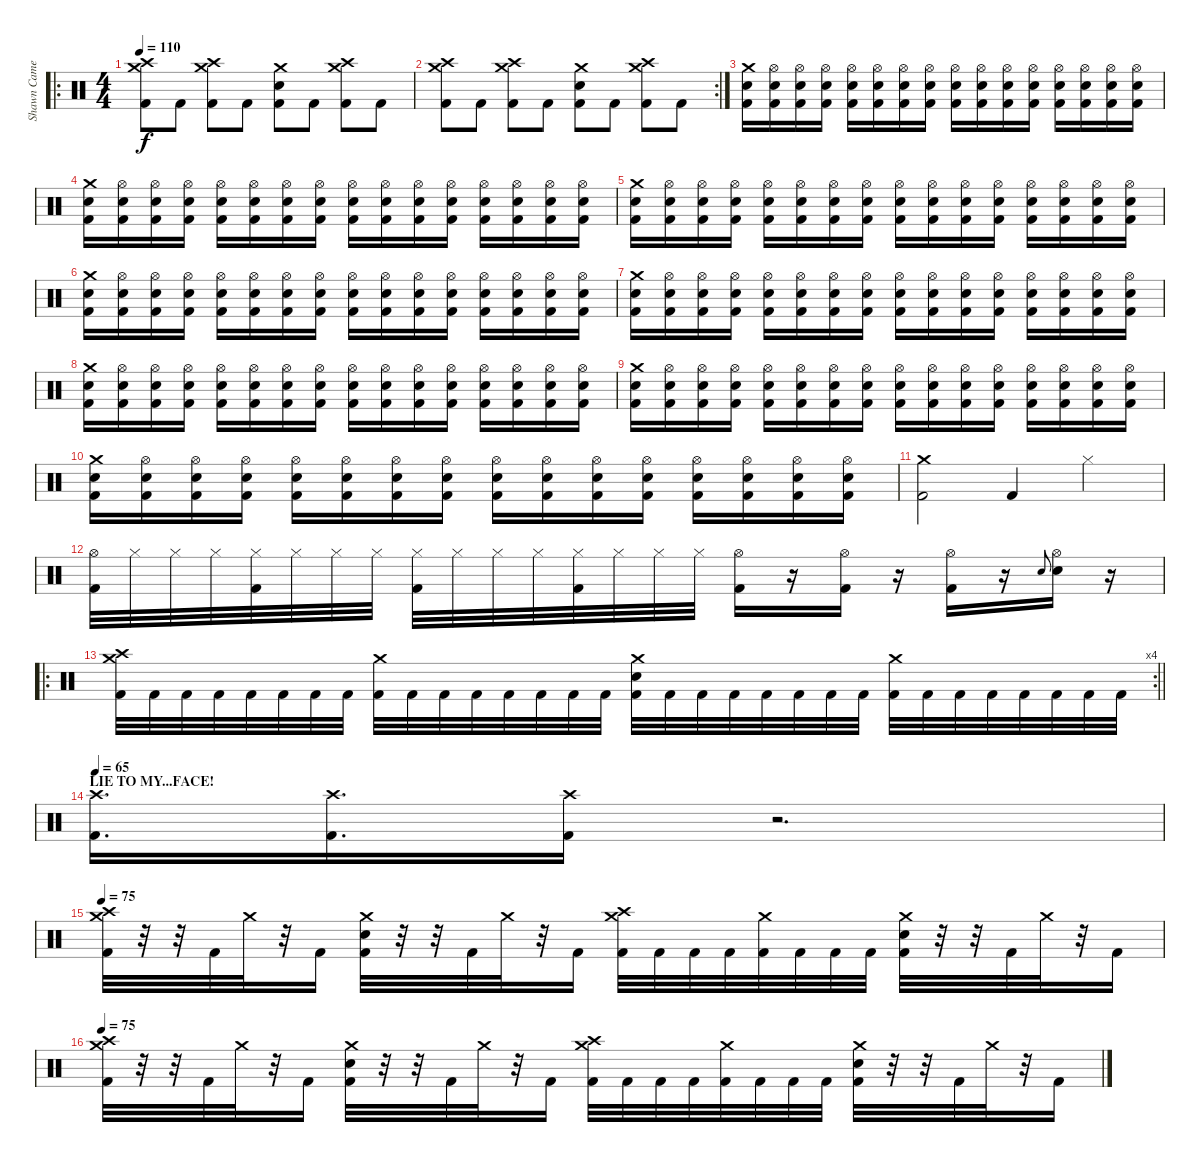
\track ("Shawn Cameron" "Shawn Came") {instrument percussion}
\staff {score}
\articulation defaults
\ro
\ts (4 4)
\tempo 110
\clef neutral
\ks c
("Crash medium (hit)" "Crash high (hit)" "Kick (hit) 2").8{dy f} "Kick (hit) 2".8 ("Crash medium (hit)" "Crash high (hit)" "Kick (hit) 2").8 "Kick (hit) 2".8 ("Crash medium (hit)" "Electric Snare (hit)" "Kick (hit) 2").8 "Kick (hit) 2".8 ("Crash medium (hit)" "Crash high (hit)" "Kick (hit) 2").8 "Kick (hit) 2".8 |
\rc 2
("Crash medium (hit)" "Crash high (hit)" "Kick (hit) 2").8 "Kick (hit) 2".8 ("Crash medium (hit)" "Crash high (hit)" "Kick (hit) 2").8 "Kick (hit) 2".8 ("Crash medium (hit)" "Electric Snare (hit)" "Kick (hit) 2").8 "Kick (hit) 2".8 ("Crash medium (hit)" "Crash high (hit)" "Kick (hit) 2").8 "Kick (hit) 2".8 |
("Crash medium (hit)" "Electric Snare (hit)" "Kick (hit) 2").16 ("Hi-Hat (open)" "Electric Snare (hit)" "Kick (hit) 2").16 ("Hi-Hat (open)" "Electric Snare (hit)" "Kick (hit) 2").16 ("Hi-Hat (open)" "Electric Snare (hit)" "Kick (hit) 2").16 ("Hi-Hat (open)" "Electric Snare (hit)" "Kick (hit) 2").16 ("Hi-Hat (open)" "Electric Snare (hit)" "Kick (hit) 2").16 ("Hi-Hat (open)" "Electric Snare (hit)" "Kick (hit) 2").16 ("Hi-Hat (open)" "Electric Snare (hit)" "Kick (hit) 2").16 ("Hi-Hat (open)" "Electric Snare (hit)" "Kick (hit) 2").16 ("Hi-Hat (open)" "Electric Snare (hit)" "Kick (hit) 2").16 ("Hi-Hat (open)" "Electric Snare (hit)" "Kick (hit) 2").16 ("Hi-Hat (open)" "Electric Snare (hit)" "Kick (hit) 2").16 ("Hi-Hat (open)" "Electric Snare (hit)" "Kick (hit) 2").16 ("Hi-Hat (open)" "Electric Snare (hit)" "Kick (hit) 2").16 ("Hi-Hat (open)" "Electric Snare (hit)" "Kick (hit) 2").16 ("Hi-Hat (open)" "Electric Snare (hit)" "Kick (hit) 2").16 |
("Crash medium (hit)" "Electric Snare (hit)" "Kick (hit) 2").16 ("Hi-Hat (open)" "Electric Snare (hit)" "Kick (hit) 2").16 ("Hi-Hat (open)" "Electric Snare (hit)" "Kick (hit) 2").16 ("Hi-Hat (open)" "Electric Snare (hit)" "Kick (hit) 2").16 ("Hi-Hat (open)" "Electric Snare (hit)" "Kick (hit) 2").16 ("Hi-Hat (open)" "Electric Snare (hit)" "Kick (hit) 2").16 ("Hi-Hat (open)" "Electric Snare (hit)" "Kick (hit) 2").16 ("Hi-Hat (open)" "Electric Snare (hit)" "Kick (hit) 2").16 ("Hi-Hat (open)" "Electric Snare (hit)" "Kick (hit) 2").16 ("Hi-Hat (open)" "Electric Snare (hit)" "Kick (hit) 2").16 ("Hi-Hat (open)" "Electric Snare (hit)" "Kick (hit) 2").16 ("Hi-Hat (open)" "Electric Snare (hit)" "Kick (hit) 2").16 ("Hi-Hat (open)" "Electric Snare (hit)" "Kick (hit) 2").16 ("Hi-Hat (open)" "Electric Snare (hit)" "Kick (hit) 2").16 ("Hi-Hat (open)" "Electric Snare (hit)" "Kick (hit) 2").16 ("Hi-Hat (open)" "Electric Snare (hit)" "Kick (hit) 2").16 |
("Crash medium (hit)" "Electric Snare (hit)" "Kick (hit) 2").16 ("Hi-Hat (open)" "Electric Snare (hit)" "Kick (hit) 2").16 ("Hi-Hat (open)" "Electric Snare (hit)" "Kick (hit) 2").16 ("Hi-Hat (open)" "Electric Snare (hit)" "Kick (hit) 2").16 ("Hi-Hat (open)" "Electric Snare (hit)" "Kick (hit) 2").16 ("Hi-Hat (open)" "Electric Snare (hit)" "Kick (hit) 2").16 ("Hi-Hat (open)" "Electric Snare (hit)" "Kick (hit) 2").16 ("Hi-Hat (open)" "Electric Snare (hit)" "Kick (hit) 2").16 ("Hi-Hat (open)" "Electric Snare (hit)" "Kick (hit) 2").16 ("Hi-Hat (open)" "Electric Snare (hit)" "Kick (hit) 2").16 ("Hi-Hat (open)" "Electric Snare (hit)" "Kick (hit) 2").16 ("Hi-Hat (open)" "Electric Snare (hit)" "Kick (hit) 2").16 ("Hi-Hat (open)" "Electric Snare (hit)" "Kick (hit) 2").16 ("Hi-Hat (open)" "Electric Snare (hit)" "Kick (hit) 2").16 ("Hi-Hat (open)" "Electric Snare (hit)" "Kick (hit) 2").16 ("Hi-Hat (open)" "Electric Snare (hit)" "Kick (hit) 2").16 |
("Crash medium (hit)" "Electric Snare (hit)" "Kick (hit) 2").16 ("Hi-Hat (open)" "Electric Snare (hit)" "Kick (hit) 2").16 ("Hi-Hat (open)" "Electric Snare (hit)" "Kick (hit) 2").16 ("Hi-Hat (open)" "Electric Snare (hit)" "Kick (hit) 2").16 ("Hi-Hat (open)" "Electric Snare (hit)" "Kick (hit) 2").16 ("Hi-Hat (open)" "Electric Snare (hit)" "Kick (hit) 2").16 ("Hi-Hat (open)" "Electric Snare (hit)" "Kick (hit) 2").16 ("Hi-Hat (open)" "Electric Snare (hit)" "Kick (hit) 2").16 ("Hi-Hat (open)" "Electric Snare (hit)" "Kick (hit) 2").16 ("Hi-Hat (open)" "Electric Snare (hit)" "Kick (hit) 2").16 ("Hi-Hat (open)" "Electric Snare (hit)" "Kick (hit) 2").16 ("Hi-Hat (open)" "Electric Snare (hit)" "Kick (hit) 2").16 ("Hi-Hat (open)" "Electric Snare (hit)" "Kick (hit) 2").16 ("Hi-Hat (open)" "Electric Snare (hit)" "Kick (hit) 2").16 ("Hi-Hat (open)" "Electric Snare (hit)" "Kick (hit) 2").16 ("Hi-Hat (open)" "Electric Snare (hit)" "Kick (hit) 2").16 |
("Crash medium (hit)" "Electric Snare (hit)" "Kick (hit) 2").16 ("Hi-Hat (open)" "Electric Snare (hit)" "Kick (hit) 2").16 ("Hi-Hat (open)" "Electric Snare (hit)" "Kick (hit) 2").16 ("Hi-Hat (open)" "Electric Snare (hit)" "Kick (hit) 2").16 ("Hi-Hat (open)" "Electric Snare (hit)" "Kick (hit) 2").16 ("Hi-Hat (open)" "Electric Snare (hit)" "Kick (hit) 2").16 ("Hi-Hat (open)" "Electric Snare (hit)" "Kick (hit) 2").16 ("Hi-Hat (open)" "Electric Snare (hit)" "Kick (hit) 2").16 ("Hi-Hat (open)" "Electric Snare (hit)" "Kick (hit) 2").16 ("Hi-Hat (open)" "Electric Snare (hit)" "Kick (hit) 2").16 ("Hi-Hat (open)" "Electric Snare (hit)" "Kick (hit) 2").16 ("Hi-Hat (open)" "Electric Snare (hit)" "Kick (hit) 2").16 ("Hi-Hat (open)" "Electric Snare (hit)" "Kick (hit) 2").16 ("Hi-Hat (open)" "Electric Snare (hit)" "Kick (hit) 2").16 ("Hi-Hat (open)" "Electric Snare (hit)" "Kick (hit) 2").16 ("Hi-Hat (open)" "Electric Snare (hit)" "Kick (hit) 2").16 |
("Crash medium (hit)" "Electric Snare (hit)" "Kick (hit) 2").16 ("Hi-Hat (open)" "Electric Snare (hit)" "Kick (hit) 2").16 ("Hi-Hat (open)" "Electric Snare (hit)" "Kick (hit) 2").16 ("Hi-Hat (open)" "Electric Snare (hit)" "Kick (hit) 2").16 ("Hi-Hat (open)" "Electric Snare (hit)" "Kick (hit) 2").16 ("Hi-Hat (open)" "Electric Snare (hit)" "Kick (hit) 2").16 ("Hi-Hat (open)" "Electric Snare (hit)" "Kick (hit) 2").16 ("Hi-Hat (open)" "Electric Snare (hit)" "Kick (hit) 2").16 ("Hi-Hat (open)" "Electric Snare (hit)" "Kick (hit) 2").16 ("Hi-Hat (open)" "Electric Snare (hit)" "Kick (hit) 2").16 ("Hi-Hat (open)" "Electric Snare (hit)" "Kick (hit) 2").16 ("Hi-Hat (open)" "Electric Snare (hit)" "Kick (hit) 2").16 ("Hi-Hat (open)" "Electric Snare (hit)" "Kick (hit) 2").16 ("Hi-Hat (open)" "Electric Snare (hit)" "Kick (hit) 2").16 ("Hi-Hat (open)" "Electric Snare (hit)" "Kick (hit) 2").16 ("Hi-Hat (open)" "Electric Snare (hit)" "Kick (hit) 2").16 |
("Crash medium (hit)" "Electric Snare (hit)" "Kick (hit) 2").16 ("Hi-Hat (open)" "Electric Snare (hit)" "Kick (hit) 2").16 ("Hi-Hat (open)" "Electric Snare (hit)" "Kick (hit) 2").16 ("Hi-Hat (open)" "Electric Snare (hit)" "Kick (hit) 2").16 ("Hi-Hat (open)" "Electric Snare (hit)" "Kick (hit) 2").16 ("Hi-Hat (open)" "Electric Snare (hit)" "Kick (hit) 2").16 ("Hi-Hat (open)" "Electric Snare (hit)" "Kick (hit) 2").16 ("Hi-Hat (open)" "Electric Snare (hit)" "Kick (hit) 2").16 ("Hi-Hat (open)" "Electric Snare (hit)" "Kick (hit) 2").16 ("Hi-Hat (open)" "Electric Snare (hit)" "Kick (hit) 2").16 ("Hi-Hat (open)" "Electric Snare (hit)" "Kick (hit) 2").16 ("Hi-Hat (open)" "Electric Snare (hit)" "Kick (hit) 2").16 ("Hi-Hat (open)" "Electric Snare (hit)" "Kick (hit) 2").16 ("Hi-Hat (open)" "Electric Snare (hit)" "Kick (hit) 2").16 ("Hi-Hat (open)" "Electric Snare (hit)" "Kick (hit) 2").16 ("Hi-Hat (open)" "Electric Snare (hit)" "Kick (hit) 2").16 |
("Crash medium (hit)" "Electric Snare (hit)" "Kick (hit) 2").16 ("Hi-Hat (open)" "Electric Snare (hit)" "Kick (hit) 2").16 ("Hi-Hat (open)" "Electric Snare (hit)" "Kick (hit) 2").16 ("Hi-Hat (open)" "Electric Snare (hit)" "Kick (hit) 2").16 ("Hi-Hat (open)" "Electric Snare (hit)" "Kick (hit) 2").16 ("Hi-Hat (open)" "Electric Snare (hit)" "Kick (hit) 2").16 ("Hi-Hat (open)" "Electric Snare (hit)" "Kick (hit) 2").16 ("Hi-Hat (open)" "Electric Snare (hit)" "Kick (hit) 2").16 ("Hi-Hat (open)" "Electric Snare (hit)" "Kick (hit) 2").16 ("Hi-Hat (open)" "Electric Snare (hit)" "Kick (hit) 2").16 ("Hi-Hat (open)" "Electric Snare (hit)" "Kick (hit) 2").16 ("Hi-Hat (open)" "Electric Snare (hit)" "Kick (hit) 2").16 ("Hi-Hat (open)" "Electric Snare (hit)" "Kick (hit) 2").16 ("Hi-Hat (open)" "Electric Snare (hit)" "Kick (hit) 2").16 ("Hi-Hat (open)" "Electric Snare (hit)" "Kick (hit) 2").16 ("Hi-Hat (open)" "Electric Snare (hit)" "Kick (hit) 2").16 |
("Crash medium (hit)" "Kick (hit) 2").2 "Kick (hit) 2".4 "Hi-Hat (closed)".4 |
("Hi-Hat (open)" "Kick (hit) 2").32 "Hi-Hat (closed)".32 "Hi-Hat (closed)".32 "Hi-Hat (closed)".32 ("Hi-Hat (closed)" "Kick (hit) 2").32 "Hi-Hat (closed)".32 "Hi-Hat (closed)".32 "Hi-Hat (closed)".32 ("Hi-Hat (closed)" "Kick (hit) 2").32 "Hi-Hat (closed)".32 "Hi-Hat (closed)".32 "Hi-Hat (closed)".32 ("Hi-Hat (closed)" "Kick (hit) 2").32 "Hi-Hat (closed)".32 "Hi-Hat (closed)".32 "Hi-Hat (closed)".32 ("Hi-Hat (open)" "Kick (hit) 2").16 r.16 ("Hi-Hat (open)" "Kick (hit) 2").16 r.16 ("Hi-Hat (open)" "Kick (hit) 2").16 r.16 "Electric Snare (hit)".8{gr onbeat} ("Hi-Hat (open)" "Electric Snare (hit)").16 r.16 |
\ro
\rc 4
\barLineRight lightlight
("Crash medium (hit)" "Crash high (hit)" "Kick (hit) 2").32 "Kick (hit) 2".32 "Kick (hit) 2".32 "Kick (hit) 2".32 "Kick (hit) 2".32 "Kick (hit) 2".32 "Kick (hit) 2".32 "Kick (hit) 2".32 ("Crash medium (hit)" "Kick (hit) 2").32 "Kick (hit) 2".32 "Kick (hit) 2".32 "Kick (hit) 2".32 "Kick (hit) 2".32 "Kick (hit) 2".32 "Kick (hit) 2".32 "Kick (hit) 2".32 ("Crash medium (hit)" "Electric Snare (hit)" "Kick (hit) 2").32 "Kick (hit) 2".32 "Kick (hit) 2".32 "Kick (hit) 2".32 "Kick (hit) 2".32 "Kick (hit) 2".32 "Kick (hit) 2".32 "Kick (hit) 2".32 ("Crash medium (hit)" "Kick (hit) 2").32 "Kick (hit) 2".32 "Kick (hit) 2".32 "Kick (hit) 2".32 "Kick (hit) 2".32 "Kick (hit) 2".32 "Kick (hit) 2".32 "Kick (hit) 2".32 |
\section ("" "LIE TO MY...FACE!")
\tempo 65
("Crash high (hit)" "Kick (hit) 2").16{d} ("Crash high (hit)" "Kick (hit) 2").16{d} ("Crash high (hit)" "Kick (hit) 2").16 r.2{d} |
\tempo 65
\tempo 75
("Crash medium (hit)" "Crash high (hit)" "Kick (hit) 2").32 r.32 r.32 "Kick (hit) 2".32 "Crash medium (hit)".32 r.32 "Kick (hit) 2".16 ("Crash medium (hit)" "Electric Snare (hit)" "Kick (hit) 2").32 r.32 r.32 "Kick (hit) 2".32 "Crash medium (hit)".32 r.32 "Kick (hit) 2".16 ("Crash medium (hit)" "Crash high (hit)" "Kick (hit) 2").32 "Kick (hit) 2".32 "Kick (hit) 2".32 "Kick (hit) 2".32 ("Crash medium (hit)" "Kick (hit) 2").32 "Kick (hit) 2".32 "Kick (hit) 2".32 "Kick (hit) 2".32 ("Crash medium (hit)" "Electric Snare (hit)" "Kick (hit) 2").32 r.32 r.32 "Kick (hit) 2".32 "Crash medium (hit)".32 r.32 "Kick (hit) 2".16 |
\tempo 75
("Crash medium (hit)" "Crash high (hit)" "Kick (hit) 2").32 r.32 r.32 "Kick (hit) 2".32 "Crash medium (hit)".32 r.32 "Kick (hit) 2".16 ("Crash medium (hit)" "Electric Snare (hit)" "Kick (hit) 2").32 r.32 r.32 "Kick (hit) 2".32 "Crash medium (hit)".32 r.32 "Kick (hit) 2".16 ("Crash medium (hit)" "Crash high (hit)" "Kick (hit) 2").32 "Kick (hit) 2".32 "Kick (hit) 2".32 "Kick (hit) 2".32 ("Crash medium (hit)" "Kick (hit) 2").32 "Kick (hit) 2".32 "Kick (hit) 2".32 "Kick (hit) 2".32 ("Crash medium (hit)" "Electric Snare (hit)" "Kick (hit) 2").32 r.32 r.32 "Kick (hit) 2".32 "Crash medium (hit)".32 r.32 "Kick (hit) 2".16
